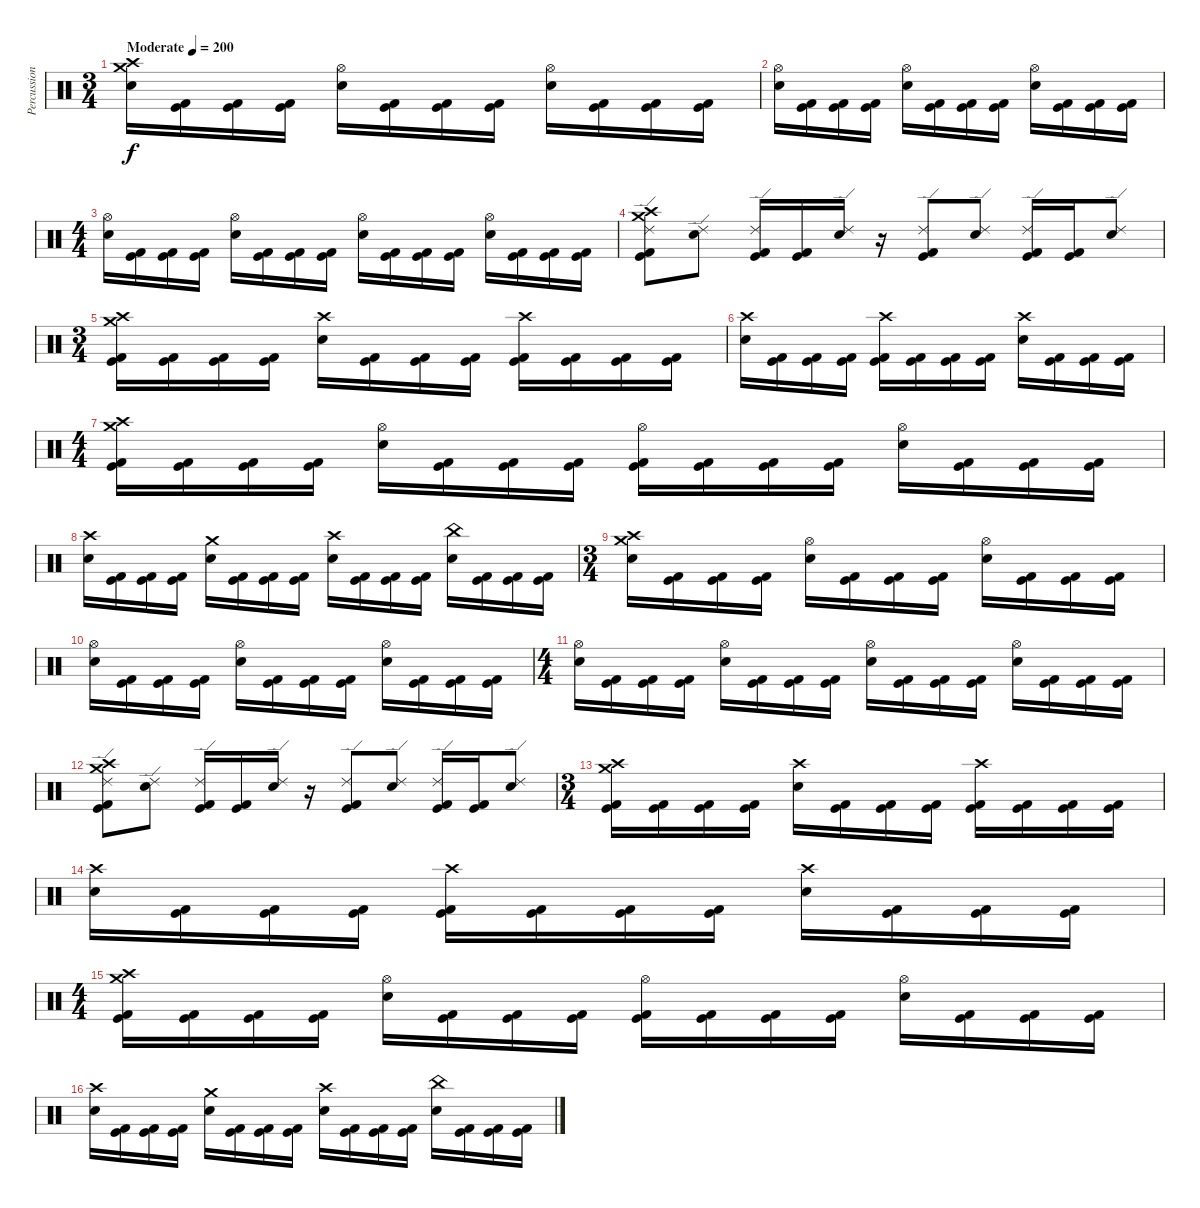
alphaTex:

\track ("Percussion" "Percussion") {instrument percussion}
\staff {score}
\articulation defaults
\ts (3 4)
\tempo (200 "Moderate")
\clef neutral
\ks c
("Crash medium (hit)" "Crash high (hit)" "Electric Snare (hit)").16{dy f} ("Kick (hit)" "Kick (hit) 2").16 ("Kick (hit)" "Kick (hit) 2").16 ("Kick (hit)" "Kick (hit) 2").16 ("Hi-Hat (open)" "Electric Snare (hit)").16 ("Kick (hit)" "Kick (hit) 2").16 ("Kick (hit)" "Kick (hit) 2").16 ("Kick (hit)" "Kick (hit) 2").16 ("Hi-Hat (open)" "Electric Snare (hit)").16 ("Kick (hit)" "Kick (hit) 2").16 ("Kick (hit)" "Kick (hit) 2").16 ("Kick (hit)" "Kick (hit) 2").16 |
("Hi-Hat (open)" "Electric Snare (hit)").16 ("Kick (hit)" "Kick (hit) 2").16 ("Kick (hit)" "Kick (hit) 2").16 ("Kick (hit)" "Kick (hit) 2").16 ("Hi-Hat (open)" "Electric Snare (hit)").16 ("Kick (hit)" "Kick (hit) 2").16 ("Kick (hit)" "Kick (hit) 2").16 ("Kick (hit)" "Kick (hit) 2").16 ("Hi-Hat (open)" "Electric Snare (hit)").16 ("Kick (hit)" "Kick (hit) 2").16 ("Kick (hit)" "Kick (hit) 2").16 ("Kick (hit)" "Kick (hit) 2").16 |
\ts (4 4)
("Hi-Hat (open)" "Electric Snare (hit)").16 ("Kick (hit)" "Kick (hit) 2").16 ("Kick (hit)" "Kick (hit) 2").16 ("Kick (hit)" "Kick (hit) 2").16 ("Hi-Hat (open)" "Electric Snare (hit)").16 ("Kick (hit)" "Kick (hit) 2").16 ("Kick (hit)" "Kick (hit) 2").16 ("Kick (hit)" "Kick (hit) 2").16 ("Hi-Hat (open)" "Electric Snare (hit)").16 ("Kick (hit)" "Kick (hit) 2").16 ("Kick (hit)" "Kick (hit) 2").16 ("Kick (hit)" "Kick (hit) 2").16 ("Hi-Hat (open)" "Electric Snare (hit)").16 ("Kick (hit)" "Kick (hit) 2").16 ("Kick (hit)" "Kick (hit) 2").16 ("Kick (hit)" "Kick (hit) 2").16 |
("Crash medium (hit)" "Crash high (hit)" "Ride (edge) 2" "Kick (hit)" "Kick (hit) 2").8 ("Ride (edge) 2" "Electric Snare (hit)").8 ("Ride (edge) 2" "Kick (hit)" "Kick (hit) 2").16 ("Kick (hit)" "Kick (hit) 2").16 ("Ride (edge) 2" "Electric Snare (hit)").16 r.16 ("Ride (edge) 2" "Kick (hit)" "Kick (hit) 2").8 ("Ride (edge) 2" "Electric Snare (hit)").8 ("Ride (edge) 2" "Kick (hit)" "Kick (hit) 2").16 ("Kick (hit)" "Kick (hit) 2").16 ("Ride (edge) 2" "Electric Snare (hit)").8 |
\ts (3 4)
("Crash medium (hit)" "Crash high (hit)" "Kick (hit)" "Kick (hit) 2").16 ("Kick (hit)" "Kick (hit) 2").16 ("Kick (hit)" "Kick (hit) 2").16 ("Kick (hit)" "Kick (hit) 2").16 ("Crash high (hit)" "Electric Snare (hit)").16 ("Kick (hit)" "Kick (hit) 2").16 ("Kick (hit)" "Kick (hit) 2").16 ("Kick (hit)" "Kick (hit) 2").16 ("Crash high (hit)" "Kick (hit)" "Kick (hit) 2").16 ("Kick (hit)" "Kick (hit) 2").16 ("Kick (hit)" "Kick (hit) 2").16 ("Kick (hit)" "Kick (hit) 2").16 |
("Crash high (hit)" "Electric Snare (hit)").16 ("Kick (hit)" "Kick (hit) 2").16 ("Kick (hit)" "Kick (hit) 2").16 ("Kick (hit)" "Kick (hit) 2").16 ("Crash high (hit)" "Kick (hit)" "Kick (hit) 2").16 ("Kick (hit)" "Kick (hit) 2").16 ("Kick (hit)" "Kick (hit) 2").16 ("Kick (hit)" "Kick (hit) 2").16 ("Crash high (hit)" "Electric Snare (hit)").16 ("Kick (hit)" "Kick (hit) 2").16 ("Kick (hit)" "Kick (hit) 2").16 ("Kick (hit)" "Kick (hit) 2").16 |
\ts (4 4)
("Crash medium (hit)" "Crash high (hit)" "Kick (hit)" "Kick (hit) 2").16 ("Kick (hit)" "Kick (hit) 2").16 ("Kick (hit)" "Kick (hit) 2").16 ("Kick (hit)" "Kick (hit) 2").16 ("Hi-Hat (open)" "Electric Snare (hit)").16 ("Kick (hit)" "Kick (hit) 2").16 ("Kick (hit)" "Kick (hit) 2").16 ("Kick (hit)" "Kick (hit) 2").16 ("Hi-Hat (open)" "Kick (hit)" "Kick (hit) 2").16 ("Kick (hit)" "Kick (hit) 2").16 ("Kick (hit)" "Kick (hit) 2").16 ("Kick (hit)" "Kick (hit) 2").16 ("Hi-Hat (open)" "Electric Snare (hit)").16 ("Kick (hit)" "Kick (hit) 2").16 ("Kick (hit)" "Kick (hit) 2").16 ("Kick (hit)" "Kick (hit) 2").16 |
("Crash high (hit)" "Electric Snare (hit)").16 ("Kick (hit)" "Kick (hit) 2").16 ("Kick (hit)" "Kick (hit) 2").16 ("Kick (hit)" "Kick (hit) 2").16 ("Crash medium (hit)" "Electric Snare (hit)").16 ("Kick (hit)" "Kick (hit) 2").16 ("Kick (hit)" "Kick (hit) 2").16 ("Kick (hit)" "Kick (hit) 2").16 ("Crash high (hit)" "Electric Snare (hit)").16 ("Kick (hit)" "Kick (hit) 2").16 ("Kick (hit)" "Kick (hit) 2").16 ("Kick (hit)" "Kick (hit) 2").16 ("China (hit)" "Electric Snare (hit)").16 ("Kick (hit)" "Kick (hit) 2").16 ("Kick (hit)" "Kick (hit) 2").16 ("Kick (hit)" "Kick (hit) 2").16 |
\ts (3 4)
("Crash medium (hit)" "Crash high (hit)" "Electric Snare (hit)").16 ("Kick (hit)" "Kick (hit) 2").16 ("Kick (hit)" "Kick (hit) 2").16 ("Kick (hit)" "Kick (hit) 2").16 ("Hi-Hat (open)" "Electric Snare (hit)").16 ("Kick (hit)" "Kick (hit) 2").16 ("Kick (hit)" "Kick (hit) 2").16 ("Kick (hit)" "Kick (hit) 2").16 ("Hi-Hat (open)" "Electric Snare (hit)").16 ("Kick (hit)" "Kick (hit) 2").16 ("Kick (hit)" "Kick (hit) 2").16 ("Kick (hit)" "Kick (hit) 2").16 |
("Hi-Hat (open)" "Electric Snare (hit)").16 ("Kick (hit)" "Kick (hit) 2").16 ("Kick (hit)" "Kick (hit) 2").16 ("Kick (hit)" "Kick (hit) 2").16 ("Hi-Hat (open)" "Electric Snare (hit)").16 ("Kick (hit)" "Kick (hit) 2").16 ("Kick (hit)" "Kick (hit) 2").16 ("Kick (hit)" "Kick (hit) 2").16 ("Hi-Hat (open)" "Electric Snare (hit)").16 ("Kick (hit)" "Kick (hit) 2").16 ("Kick (hit)" "Kick (hit) 2").16 ("Kick (hit)" "Kick (hit) 2").16 |
\ts (4 4)
("Hi-Hat (open)" "Electric Snare (hit)").16 ("Kick (hit)" "Kick (hit) 2").16 ("Kick (hit)" "Kick (hit) 2").16 ("Kick (hit)" "Kick (hit) 2").16 ("Hi-Hat (open)" "Electric Snare (hit)").16 ("Kick (hit)" "Kick (hit) 2").16 ("Kick (hit)" "Kick (hit) 2").16 ("Kick (hit)" "Kick (hit) 2").16 ("Hi-Hat (open)" "Electric Snare (hit)").16 ("Kick (hit)" "Kick (hit) 2").16 ("Kick (hit)" "Kick (hit) 2").16 ("Kick (hit)" "Kick (hit) 2").16 ("Hi-Hat (open)" "Electric Snare (hit)").16 ("Kick (hit)" "Kick (hit) 2").16 ("Kick (hit)" "Kick (hit) 2").16 ("Kick (hit)" "Kick (hit) 2").16 |
("Crash medium (hit)" "Crash high (hit)" "Ride (edge) 2" "Kick (hit)" "Kick (hit) 2").8 ("Ride (edge) 2" "Electric Snare (hit)").8 ("Ride (edge) 2" "Kick (hit)" "Kick (hit) 2").16 ("Kick (hit)" "Kick (hit) 2").16 ("Ride (edge) 2" "Electric Snare (hit)").16 r.16 ("Ride (edge) 2" "Kick (hit)" "Kick (hit) 2").8 ("Ride (edge) 2" "Electric Snare (hit)").8 ("Ride (edge) 2" "Kick (hit)" "Kick (hit) 2").16 ("Kick (hit)" "Kick (hit) 2").16 ("Ride (edge) 2" "Electric Snare (hit)").8 |
\ts (3 4)
("Crash medium (hit)" "Crash high (hit)" "Kick (hit)" "Kick (hit) 2").16 ("Kick (hit)" "Kick (hit) 2").16 ("Kick (hit)" "Kick (hit) 2").16 ("Kick (hit)" "Kick (hit) 2").16 ("Crash high (hit)" "Electric Snare (hit)").16 ("Kick (hit)" "Kick (hit) 2").16 ("Kick (hit)" "Kick (hit) 2").16 ("Kick (hit)" "Kick (hit) 2").16 ("Crash high (hit)" "Kick (hit)" "Kick (hit) 2").16 ("Kick (hit)" "Kick (hit) 2").16 ("Kick (hit)" "Kick (hit) 2").16 ("Kick (hit)" "Kick (hit) 2").16 |
("Crash high (hit)" "Electric Snare (hit)").16 ("Kick (hit)" "Kick (hit) 2").16 ("Kick (hit)" "Kick (hit) 2").16 ("Kick (hit)" "Kick (hit) 2").16 ("Crash high (hit)" "Kick (hit)" "Kick (hit) 2").16 ("Kick (hit)" "Kick (hit) 2").16 ("Kick (hit)" "Kick (hit) 2").16 ("Kick (hit)" "Kick (hit) 2").16 ("Crash high (hit)" "Electric Snare (hit)").16 ("Kick (hit)" "Kick (hit) 2").16 ("Kick (hit)" "Kick (hit) 2").16 ("Kick (hit)" "Kick (hit) 2").16 |
\ts (4 4)
("Crash medium (hit)" "Crash high (hit)" "Kick (hit)" "Kick (hit) 2").16 ("Kick (hit)" "Kick (hit) 2").16 ("Kick (hit)" "Kick (hit) 2").16 ("Kick (hit)" "Kick (hit) 2").16 ("Hi-Hat (open)" "Electric Snare (hit)").16 ("Kick (hit)" "Kick (hit) 2").16 ("Kick (hit)" "Kick (hit) 2").16 ("Kick (hit)" "Kick (hit) 2").16 ("Hi-Hat (open)" "Kick (hit)" "Kick (hit) 2").16 ("Kick (hit)" "Kick (hit) 2").16 ("Kick (hit)" "Kick (hit) 2").16 ("Kick (hit)" "Kick (hit) 2").16 ("Hi-Hat (open)" "Electric Snare (hit)").16 ("Kick (hit)" "Kick (hit) 2").16 ("Kick (hit)" "Kick (hit) 2").16 ("Kick (hit)" "Kick (hit) 2").16 |
("Crash high (hit)" "Electric Snare (hit)").16 ("Kick (hit)" "Kick (hit) 2").16 ("Kick (hit)" "Kick (hit) 2").16 ("Kick (hit)" "Kick (hit) 2").16 ("Crash medium (hit)" "Electric Snare (hit)").16 ("Kick (hit)" "Kick (hit) 2").16 ("Kick (hit)" "Kick (hit) 2").16 ("Kick (hit)" "Kick (hit) 2").16 ("Crash high (hit)" "Electric Snare (hit)").16 ("Kick (hit)" "Kick (hit) 2").16 ("Kick (hit)" "Kick (hit) 2").16 ("Kick (hit)" "Kick (hit) 2").16 ("China (hit)" "Electric Snare (hit)").16 ("Kick (hit)" "Kick (hit) 2").16 ("Kick (hit)" "Kick (hit) 2").16 ("Kick (hit)" "Kick (hit) 2").16
